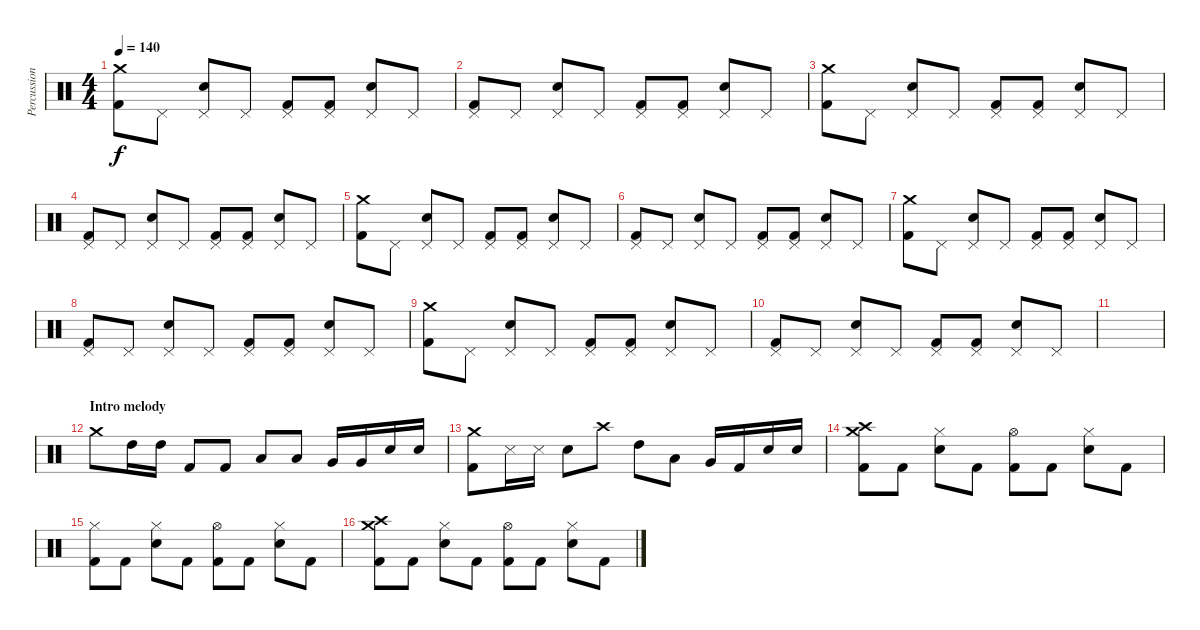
\track ("Percussioni" "Percussion") {instrument percussion}
\staff {score}
\articulation defaults
\ts (4 4)
\tempo 140
\clef neutral
\ks c
("Crash medium (hit)" "Kick (hit) 2").8{dy f} "Pedal Hi-Hat (hit)".8 ("Pedal Hi-Hat (hit)" "Electric Snare (hit)").8 "Pedal Hi-Hat (hit)".8 ("Pedal Hi-Hat (hit)" "Kick (hit) 2").8 ("Pedal Hi-Hat (hit)" "Kick (hit) 2").8 ("Pedal Hi-Hat (hit)" "Electric Snare (hit)").8 "Pedal Hi-Hat (hit)".8 |
("Pedal Hi-Hat (hit)" "Kick (hit) 2").8 "Pedal Hi-Hat (hit)".8 ("Pedal Hi-Hat (hit)" "Electric Snare (hit)").8 "Pedal Hi-Hat (hit)".8 ("Pedal Hi-Hat (hit)" "Kick (hit) 2").8 ("Pedal Hi-Hat (hit)" "Kick (hit) 2").8 ("Pedal Hi-Hat (hit)" "Electric Snare (hit)").8 "Pedal Hi-Hat (hit)".8 |
("Crash medium (hit)" "Kick (hit) 2").8 "Pedal Hi-Hat (hit)".8 ("Pedal Hi-Hat (hit)" "Electric Snare (hit)").8 "Pedal Hi-Hat (hit)".8 ("Pedal Hi-Hat (hit)" "Kick (hit) 2").8 ("Pedal Hi-Hat (hit)" "Kick (hit) 2").8 ("Pedal Hi-Hat (hit)" "Electric Snare (hit)").8 "Pedal Hi-Hat (hit)".8 |
("Pedal Hi-Hat (hit)" "Kick (hit) 2").8 "Pedal Hi-Hat (hit)".8 ("Pedal Hi-Hat (hit)" "Electric Snare (hit)").8 "Pedal Hi-Hat (hit)".8 ("Pedal Hi-Hat (hit)" "Kick (hit) 2").8 ("Pedal Hi-Hat (hit)" "Kick (hit) 2").8 ("Pedal Hi-Hat (hit)" "Electric Snare (hit)").8 "Pedal Hi-Hat (hit)".8 |
("Crash medium (hit)" "Kick (hit) 2").8 "Pedal Hi-Hat (hit)".8 ("Pedal Hi-Hat (hit)" "Electric Snare (hit)").8 "Pedal Hi-Hat (hit)".8 ("Pedal Hi-Hat (hit)" "Kick (hit) 2").8 ("Pedal Hi-Hat (hit)" "Kick (hit) 2").8 ("Pedal Hi-Hat (hit)" "Electric Snare (hit)").8 "Pedal Hi-Hat (hit)".8 |
("Pedal Hi-Hat (hit)" "Kick (hit) 2").8 "Pedal Hi-Hat (hit)".8 ("Pedal Hi-Hat (hit)" "Electric Snare (hit)").8 "Pedal Hi-Hat (hit)".8 ("Pedal Hi-Hat (hit)" "Kick (hit) 2").8 ("Pedal Hi-Hat (hit)" "Kick (hit) 2").8 ("Pedal Hi-Hat (hit)" "Electric Snare (hit)").8 "Pedal Hi-Hat (hit)".8 |
("Crash medium (hit)" "Kick (hit) 2").8 "Pedal Hi-Hat (hit)".8 ("Pedal Hi-Hat (hit)" "Electric Snare (hit)").8 "Pedal Hi-Hat (hit)".8 ("Pedal Hi-Hat (hit)" "Kick (hit) 2").8 ("Pedal Hi-Hat (hit)" "Kick (hit) 2").8 ("Pedal Hi-Hat (hit)" "Electric Snare (hit)").8 "Pedal Hi-Hat (hit)".8 |
("Pedal Hi-Hat (hit)" "Kick (hit) 2").8 "Pedal Hi-Hat (hit)".8 ("Pedal Hi-Hat (hit)" "Electric Snare (hit)").8 "Pedal Hi-Hat (hit)".8 ("Pedal Hi-Hat (hit)" "Kick (hit) 2").8 ("Pedal Hi-Hat (hit)" "Kick (hit) 2").8 ("Pedal Hi-Hat (hit)" "Electric Snare (hit)").8 "Pedal Hi-Hat (hit)".8 |
("Crash medium (hit)" "Kick (hit) 2").8 "Pedal Hi-Hat (hit)".8 ("Pedal Hi-Hat (hit)" "Electric Snare (hit)").8 "Pedal Hi-Hat (hit)".8 ("Pedal Hi-Hat (hit)" "Kick (hit) 2").8 ("Pedal Hi-Hat (hit)" "Kick (hit) 2").8 ("Pedal Hi-Hat (hit)" "Electric Snare (hit)").8 "Pedal Hi-Hat (hit)".8 |
("Pedal Hi-Hat (hit)" "Kick (hit) 2").8 "Pedal Hi-Hat (hit)".8 ("Pedal Hi-Hat (hit)" "Electric Snare (hit)").8 "Pedal Hi-Hat (hit)".8 ("Pedal Hi-Hat (hit)" "Kick (hit) 2").8 ("Pedal Hi-Hat (hit)" "Kick (hit) 2").8 ("Pedal Hi-Hat (hit)" "Electric Snare (hit)").8 "Pedal Hi-Hat (hit)".8 |
|
\section ("" "Intro melody")
"Crash medium (hit)".8 "High Tom (hit)".16 "High Tom (hit)".16 "Kick (hit) 2".8 "Kick (hit) 2".8 "Low Tom (hit)".8 "Low Tom (hit)".8 "Very Low Tom (hit)".16 "Very Low Tom (hit)".16 "Electric Snare (hit)".16 "Electric Snare (hit)".16 |
("Crash medium (hit)" "Kick (hit) 2").8 "Snare (side stick) 3".16 "Snare (side stick) 3".16 "Electric Snare (hit)".8 "Crash high (hit)".8 "High Tom (hit)".8 "Low Tom (hit)".8 "Very Low Tom (hit)".16 "Kick (hit) 2".16 "Electric Snare (hit)".16 "Electric Snare (hit)".16 |
("Crash medium (hit)" "Crash high (hit)" "Kick (hit) 2").8 "Kick (hit) 2".8 ("Hi-Hat (closed)" "Electric Snare (hit)").8 "Kick (hit) 2".8 ("Hi-Hat (open)" "Kick (hit) 2").8 "Kick (hit) 2".8 ("Hi-Hat (closed)" "Electric Snare (hit)").8 "Kick (hit) 2".8 |
("Hi-Hat (closed)" "Kick (hit) 2").8 "Kick (hit) 2".8 ("Hi-Hat (closed)" "Electric Snare (hit)").8 "Kick (hit) 2".8 ("Hi-Hat (open)" "Kick (hit) 2").8 "Kick (hit) 2".8 ("Hi-Hat (closed)" "Electric Snare (hit)").8 "Kick (hit) 2".8 |
("Crash medium (hit)" "Crash high (hit)" "Kick (hit) 2").8 "Kick (hit) 2".8 ("Hi-Hat (closed)" "Electric Snare (hit)").8 "Kick (hit) 2".8 ("Hi-Hat (open)" "Kick (hit) 2").8 "Kick (hit) 2".8 ("Hi-Hat (closed)" "Electric Snare (hit)").8 "Kick (hit) 2".8
